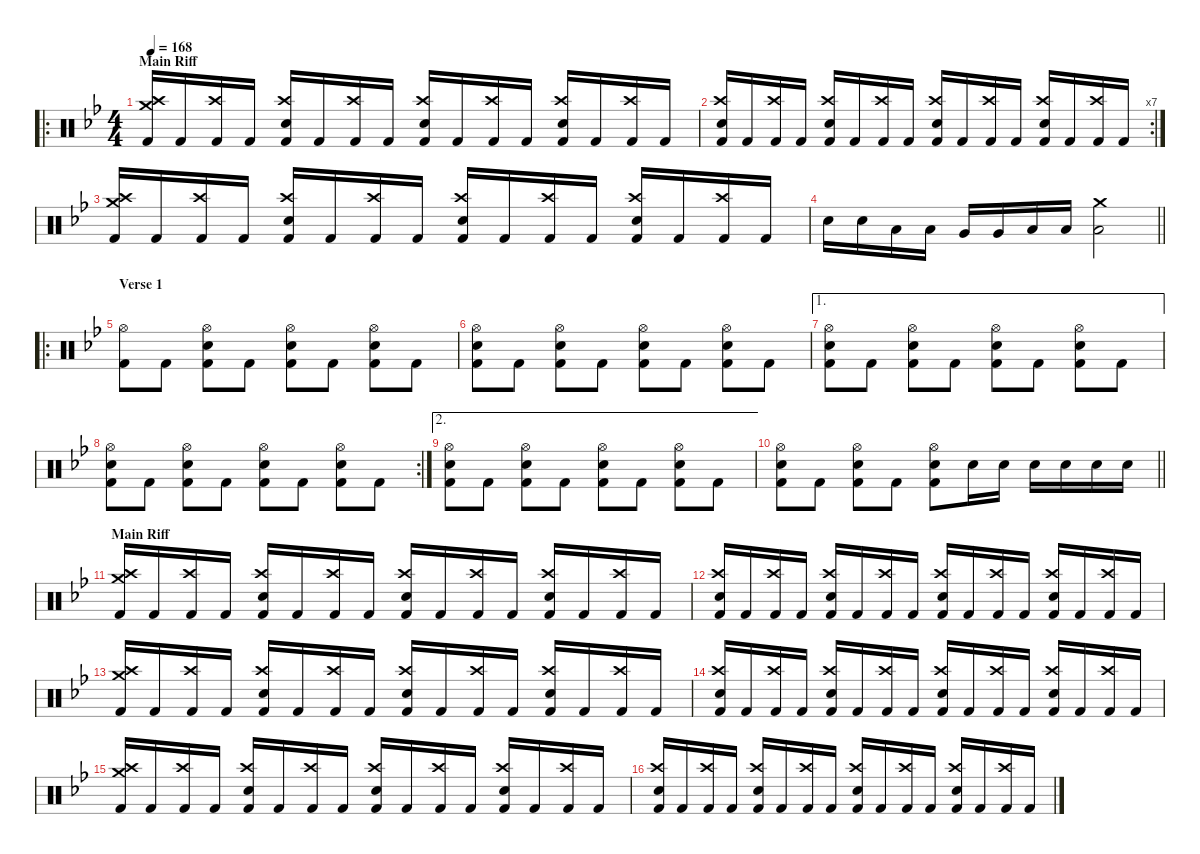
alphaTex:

\defaultSystemsLayout 4
\hideDynamics
\bracketExtendMode nobrackets
\singleTrackTrackNamePolicy hidden
\multiTrackTrackNamePolicy hidden
\firstSystemTrackNameMode fullname
\firstSystemTrackNameOrientation horizontal
\otherSystemsTrackNameOrientation horizontal
\track ("Percussion" "drm.") {instrument percussion}
\staff {score}
\articulation defaults
\ro
\ts (4 4)
\section ("" "Main Riff")
\tempo 168
\clef neutral
\ks bb
("Crash high (hit)"{acc forcenatural} "Crash medium (hit)"{acc forcenatural} "Kick (hit) 2"{acc forcenatural}).16{dy f beam Up} "Kick (hit) 2"{acc forcenatural}.16{beam Up} ("Crash high (hit)"{acc forcenatural} "Kick (hit) 2"{acc forcenatural}).16{beam Up} "Kick (hit) 2"{acc forcenatural}.16{beam Up} ("Crash high (hit)"{acc forcenatural} "Snare (hit) 2"{acc forcenatural} "Kick (hit) 2"{acc forcenatural}).16{beam Up} "Kick (hit) 2"{acc forcenatural}.16{beam Up} ("Crash high (hit)"{acc forcenatural} "Kick (hit) 2"{acc forcenatural}).16{beam Up} "Kick (hit) 2"{acc forcenatural}.16{beam Up} ("Crash high (hit)"{acc forcenatural} "Snare (hit) 2"{acc forcenatural} "Kick (hit) 2"{acc forcenatural}).16{beam Up} "Kick (hit) 2"{acc forcenatural}.16{beam Up} ("Crash high (hit)"{acc forcenatural} "Kick (hit) 2"{acc forcenatural}).16{beam Up} "Kick (hit) 2"{acc forcenatural}.16{beam Up} ("Crash high (hit)"{acc forcenatural} "Snare (hit) 2"{acc forcenatural} "Kick (hit) 2"{acc forcenatural}).16{beam Up} "Kick (hit) 2"{acc forcenatural}.16{beam Up} ("Crash high (hit)"{acc forcenatural} "Kick (hit) 2"{acc forcenatural}).16{beam Up} "Kick (hit) 2"{acc forcenatural}.16{beam Up} |
\rc 7
("Crash high (hit)"{acc forcenatural} "Snare (hit) 2"{acc forcenatural} "Kick (hit) 2"{acc forcenatural}).16{beam Up} "Kick (hit) 2"{acc forcenatural}.16{beam Up} ("Crash high (hit)"{acc forcenatural} "Kick (hit) 2"{acc forcenatural}).16{beam Up} "Kick (hit) 2"{acc forcenatural}.16{beam Up} ("Crash high (hit)"{acc forcenatural} "Snare (hit) 2"{acc forcenatural} "Kick (hit) 2"{acc forcenatural}).16{beam Up} "Kick (hit) 2"{acc forcenatural}.16{beam Up} ("Crash high (hit)"{acc forcenatural} "Kick (hit) 2"{acc forcenatural}).16{beam Up} "Kick (hit) 2"{acc forcenatural}.16{beam Up} ("Crash high (hit)"{acc forcenatural} "Snare (hit) 2"{acc forcenatural} "Kick (hit) 2"{acc forcenatural}).16{beam Up} "Kick (hit) 2"{acc forcenatural}.16{beam Up} ("Crash high (hit)"{acc forcenatural} "Kick (hit) 2"{acc forcenatural}).16{beam Up} "Kick (hit) 2"{acc forcenatural}.16{beam Up} ("Crash high (hit)"{acc forcenatural} "Snare (hit) 2"{acc forcenatural} "Kick (hit) 2"{acc forcenatural}).16{beam Up} "Kick (hit) 2"{acc forcenatural}.16{beam Up} ("Crash high (hit)"{acc forcenatural} "Kick (hit) 2"{acc forcenatural}).16{beam Up} "Kick (hit) 2"{acc forcenatural}.16{beam Up} |
("Crash high (hit)"{acc forcenatural} "Crash medium (hit)"{acc forcenatural} "Kick (hit) 2"{acc forcenatural}).16{beam Up} "Kick (hit) 2"{acc forcenatural}.16{beam Up} ("Crash high (hit)"{acc forcenatural} "Kick (hit) 2"{acc forcenatural}).16{beam Up} "Kick (hit) 2"{acc forcenatural}.16{beam Up} ("Crash high (hit)"{acc forcenatural} "Snare (hit) 2"{acc forcenatural} "Kick (hit) 2"{acc forcenatural}).16{beam Up} "Kick (hit) 2"{acc forcenatural}.16{beam Up} ("Crash high (hit)"{acc forcenatural} "Kick (hit) 2"{acc forcenatural}).16{beam Up} "Kick (hit) 2"{acc forcenatural}.16{beam Up} ("Crash high (hit)"{acc forcenatural} "Snare (hit) 2"{acc forcenatural} "Kick (hit) 2"{acc forcenatural}).16{beam Up} "Kick (hit) 2"{acc forcenatural}.16{beam Up} ("Crash high (hit)"{acc forcenatural} "Kick (hit) 2"{acc forcenatural}).16{beam Up} "Kick (hit) 2"{acc forcenatural}.16{beam Up} ("Crash high (hit)"{acc forcenatural} "Snare (hit) 2"{acc forcenatural} "Kick (hit) 2"{acc forcenatural}).16{beam Up} "Kick (hit) 2"{acc forcenatural}.16{beam Up} ("Crash high (hit)"{acc forcenatural} "Kick (hit) 2"{acc forcenatural}).16{beam Up} "Kick (hit) 2"{acc forcenatural}.16{beam Up} |
\barLineRight lightlight "Snare (hit) 2"{acc forcenatural}.16{beam Down} "Snare (hit) 2"{acc forcenatural}.16{beam Down} "Low Tom (hit)"{acc forcenatural}.16{beam Down} "Low Tom (hit)"{acc forcenatural}.16{beam Down} "Very Low Tom (hit)"{acc forcenatural}.16{beam Up} "Very Low Tom (hit)"{acc forcenatural}.16{beam Up} "Low Floor Tom (hit)"{acc forcenatural}.16{beam Up} "Low Floor Tom (hit)"{acc forcenatural}.16{beam Up}
("Crash medium (hit)"{acc forcenatural} "Low Tom (hit)"{acc forcenatural}).2{beam Down} |
\ro
\section ("" "Verse 1")
("Hi-Hat (open)"{acc forcenatural} "Kick (hit) 2"{acc forcenatural}).8{beam Down} "Kick (hit) 2"{acc forcenatural}.8{beam Down} ("Hi-Hat (open)"{acc forcenatural} "Snare (hit) 2"{acc forcenatural} "Kick (hit) 2"{acc forcenatural}).8{beam Down} "Kick (hit) 2"{acc forcenatural}.8{beam Down} ("Hi-Hat (open)"{acc forcenatural} "Snare (hit) 2"{acc forcenatural} "Kick (hit) 2"{acc forcenatural}).8{beam Down} "Kick (hit) 2"{acc forcenatural}.8{beam Down} ("Hi-Hat (open)"{acc forcenatural} "Snare (hit) 2"{acc forcenatural} "Kick (hit) 2"{acc forcenatural}).8{beam Down} "Kick (hit) 2"{acc forcenatural}.8{beam Down} |
("Hi-Hat (open)"{acc forcenatural} "Snare (hit) 2"{acc forcenatural} "Kick (hit) 2"{acc forcenatural}).8{beam Down} "Kick (hit) 2"{acc forcenatural}.8{beam Down} ("Hi-Hat (open)"{acc forcenatural} "Snare (hit) 2"{acc forcenatural} "Kick (hit) 2"{acc forcenatural}).8{beam Down} "Kick (hit) 2"{acc forcenatural}.8{beam Down} ("Hi-Hat (open)"{acc forcenatural} "Snare (hit) 2"{acc forcenatural} "Kick (hit) 2"{acc forcenatural}).8{beam Down} "Kick (hit) 2"{acc forcenatural}.8{beam Down} ("Hi-Hat (open)"{acc forcenatural} "Snare (hit) 2"{acc forcenatural} "Kick (hit) 2"{acc forcenatural}).8{beam Down} "Kick (hit) 2"{acc forcenatural}.8{beam Down} |
\ae 1
("Hi-Hat (open)"{acc forcenatural} "Snare (hit) 2"{acc forcenatural} "Kick (hit) 2"{acc forcenatural}).8{beam Down} "Kick (hit) 2"{acc forcenatural}.8{beam Down} ("Hi-Hat (open)"{acc forcenatural} "Snare (hit) 2"{acc forcenatural} "Kick (hit) 2"{acc forcenatural}).8{beam Down} "Kick (hit) 2"{acc forcenatural}.8{beam Down} ("Hi-Hat (open)"{acc forcenatural} "Snare (hit) 2"{acc forcenatural} "Kick (hit) 2"{acc forcenatural}).8{beam Down} "Kick (hit) 2"{acc forcenatural}.8{beam Down} ("Hi-Hat (open)"{acc forcenatural} "Snare (hit) 2"{acc forcenatural} "Kick (hit) 2"{acc forcenatural}).8{beam Down} "Kick (hit) 2"{acc forcenatural}.8{beam Down} |
\rc 2
("Hi-Hat (open)"{acc forcenatural} "Snare (hit) 2"{acc forcenatural} "Kick (hit) 2"{acc forcenatural}).8{beam Down} "Kick (hit) 2"{acc forcenatural}.8{beam Down} ("Hi-Hat (open)"{acc forcenatural} "Snare (hit) 2"{acc forcenatural} "Kick (hit) 2"{acc forcenatural}).8{beam Down} "Kick (hit) 2"{acc forcenatural}.8{beam Down} ("Hi-Hat (open)"{acc forcenatural} "Snare (hit) 2"{acc forcenatural} "Kick (hit) 2"{acc forcenatural}).8{beam Down} "Kick (hit) 2"{acc forcenatural}.8{beam Down} ("Hi-Hat (open)"{acc forcenatural} "Snare (hit) 2"{acc forcenatural} "Kick (hit) 2"{acc forcenatural}).8{beam Down} "Kick (hit) 2"{acc forcenatural}.8{beam Down} |
\ae 2
("Hi-Hat (open)"{acc forcenatural} "Snare (hit) 2"{acc forcenatural} "Kick (hit) 2"{acc forcenatural}).8{beam Down} "Kick (hit) 2"{acc forcenatural}.8{beam Down} ("Hi-Hat (open)"{acc forcenatural} "Snare (hit) 2"{acc forcenatural} "Kick (hit) 2"{acc forcenatural}).8{beam Down} "Kick (hit) 2"{acc forcenatural}.8{beam Down} ("Hi-Hat (open)"{acc forcenatural} "Snare (hit) 2"{acc forcenatural} "Kick (hit) 2"{acc forcenatural}).8{beam Down} "Kick (hit) 2"{acc forcenatural}.8{beam Down} ("Hi-Hat (open)"{acc forcenatural} "Snare (hit) 2"{acc forcenatural} "Kick (hit) 2"{acc forcenatural}).8{beam Down} "Kick (hit) 2"{acc forcenatural}.8{beam Down} |
\barLineRight lightlight
("Hi-Hat (open)"{acc forcenatural} "Snare (hit) 2"{acc forcenatural} "Kick (hit) 2"{acc forcenatural}).8{beam Down} "Kick (hit) 2"{acc forcenatural}.8{beam Down} ("Hi-Hat (open)"{acc forcenatural} "Snare (hit) 2"{acc forcenatural} "Kick (hit) 2"{acc forcenatural}).8{beam Down} "Kick (hit) 2"{acc forcenatural}.8{beam Down} ("Hi-Hat (open)"{acc forcenatural} "Snare (hit) 2"{acc forcenatural} "Kick (hit) 2"{acc forcenatural}).8{beam Down} "Snare (hit) 2"{acc forcenatural}.16{beam Down} "Snare (hit) 2"{acc forcenatural}.16{beam Down} "Snare (hit) 2"{acc forcenatural}.16{beam Down} "Snare (hit) 2"{acc forcenatural}.16{beam Down} "Snare (hit) 2"{acc forcenatural}.16{beam Down} "Snare (hit) 2"{acc forcenatural}.16{beam Down} |
\section ("" "Main Riff")
("Crash high (hit)"{acc forcenatural} "Crash medium (hit)"{acc forcenatural} "Kick (hit) 2"{acc forcenatural}).16{beam Up} "Kick (hit) 2"{acc forcenatural}.16{beam Up} ("Crash high (hit)"{acc forcenatural} "Kick (hit) 2"{acc forcenatural}).16{beam Up} "Kick (hit) 2"{acc forcenatural}.16{beam Up} ("Crash high (hit)"{acc forcenatural} "Snare (hit) 2"{acc forcenatural} "Kick (hit) 2"{acc forcenatural}).16{beam Up} "Kick (hit) 2"{acc forcenatural}.16{beam Up} ("Crash high (hit)"{acc forcenatural} "Kick (hit) 2"{acc forcenatural}).16{beam Up} "Kick (hit) 2"{acc forcenatural}.16{beam Up} ("Crash high (hit)"{acc forcenatural} "Snare (hit) 2"{acc forcenatural} "Kick (hit) 2"{acc forcenatural}).16{beam Up} "Kick (hit) 2"{acc forcenatural}.16{beam Up} ("Crash high (hit)"{acc forcenatural} "Kick (hit) 2"{acc forcenatural}).16{beam Up} "Kick (hit) 2"{acc forcenatural}.16{beam Up} ("Crash high (hit)"{acc forcenatural} "Snare (hit) 2"{acc forcenatural} "Kick (hit) 2"{acc forcenatural}).16{beam Up} "Kick (hit) 2"{acc forcenatural}.16{beam Up} ("Crash high (hit)"{acc forcenatural} "Kick (hit) 2"{acc forcenatural}).16{beam Up} "Kick (hit) 2"{acc forcenatural}.16{beam Up} |
("Crash high (hit)"{acc forcenatural} "Snare (hit) 2"{acc forcenatural} "Kick (hit) 2"{acc forcenatural}).16{beam Up} "Kick (hit) 2"{acc forcenatural}.16{beam Up} ("Crash high (hit)"{acc forcenatural} "Kick (hit) 2"{acc forcenatural}).16{beam Up} "Kick (hit) 2"{acc forcenatural}.16{beam Up} ("Crash high (hit)"{acc forcenatural} "Snare (hit) 2"{acc forcenatural} "Kick (hit) 2"{acc forcenatural}).16{beam Up} "Kick (hit) 2"{acc forcenatural}.16{beam Up} ("Crash high (hit)"{acc forcenatural} "Kick (hit) 2"{acc forcenatural}).16{beam Up} "Kick (hit) 2"{acc forcenatural}.16{beam Up} ("Crash high (hit)"{acc forcenatural} "Snare (hit) 2"{acc forcenatural} "Kick (hit) 2"{acc forcenatural}).16{beam Up} "Kick (hit) 2"{acc forcenatural}.16{beam Up} ("Crash high (hit)"{acc forcenatural} "Kick (hit) 2"{acc forcenatural}).16{beam Up} "Kick (hit) 2"{acc forcenatural}.16{beam Up} ("Crash high (hit)"{acc forcenatural} "Snare (hit) 2"{acc forcenatural} "Kick (hit) 2"{acc forcenatural}).16{beam Up} "Kick (hit) 2"{acc forcenatural}.16{beam Up} ("Crash high (hit)"{acc forcenatural} "Kick (hit) 2"{acc forcenatural}).16{beam Up} "Kick (hit) 2"{acc forcenatural}.16{beam Up} |
("Crash high (hit)"{acc forcenatural} "Crash medium (hit)"{acc forcenatural} "Kick (hit) 2"{acc forcenatural}).16{beam Up} "Kick (hit) 2"{acc forcenatural}.16{beam Up} ("Crash high (hit)"{acc forcenatural} "Kick (hit) 2"{acc forcenatural}).16{beam Up} "Kick (hit) 2"{acc forcenatural}.16{beam Up} ("Crash high (hit)"{acc forcenatural} "Snare (hit) 2"{acc forcenatural} "Kick (hit) 2"{acc forcenatural}).16{beam Up} "Kick (hit) 2"{acc forcenatural}.16{beam Up} ("Crash high (hit)"{acc forcenatural} "Kick (hit) 2"{acc forcenatural}).16{beam Up} "Kick (hit) 2"{acc forcenatural}.16{beam Up} ("Crash high (hit)"{acc forcenatural} "Snare (hit) 2"{acc forcenatural} "Kick (hit) 2"{acc forcenatural}).16{beam Up} "Kick (hit) 2"{acc forcenatural}.16{beam Up} ("Crash high (hit)"{acc forcenatural} "Kick (hit) 2"{acc forcenatural}).16{beam Up} "Kick (hit) 2"{acc forcenatural}.16{beam Up} ("Crash high (hit)"{acc forcenatural} "Snare (hit) 2"{acc forcenatural} "Kick (hit) 2"{acc forcenatural}).16{beam Up} "Kick (hit) 2"{acc forcenatural}.16{beam Up} ("Crash high (hit)"{acc forcenatural} "Kick (hit) 2"{acc forcenatural}).16{beam Up} "Kick (hit) 2"{acc forcenatural}.16{beam Up} |
("Crash high (hit)"{acc forcenatural} "Snare (hit) 2"{acc forcenatural} "Kick (hit) 2"{acc forcenatural}).16{beam Up} "Kick (hit) 2"{acc forcenatural}.16{beam Up} ("Crash high (hit)"{acc forcenatural} "Kick (hit) 2"{acc forcenatural}).16{beam Up} "Kick (hit) 2"{acc forcenatural}.16{beam Up} ("Crash high (hit)"{acc forcenatural} "Snare (hit) 2"{acc forcenatural} "Kick (hit) 2"{acc forcenatural}).16{beam Up} "Kick (hit) 2"{acc forcenatural}.16{beam Up} ("Crash high (hit)"{acc forcenatural} "Kick (hit) 2"{acc forcenatural}).16{beam Up} "Kick (hit) 2"{acc forcenatural}.16{beam Up} ("Crash high (hit)"{acc forcenatural} "Snare (hit) 2"{acc forcenatural} "Kick (hit) 2"{acc forcenatural}).16{beam Up} "Kick (hit) 2"{acc forcenatural}.16{beam Up} ("Crash high (hit)"{acc forcenatural} "Kick (hit) 2"{acc forcenatural}).16{beam Up} "Kick (hit) 2"{acc forcenatural}.16{beam Up} ("Crash high (hit)"{acc forcenatural} "Snare (hit) 2"{acc forcenatural} "Kick (hit) 2"{acc forcenatural}).16{beam Up} "Kick (hit) 2"{acc forcenatural}.16{beam Up} ("Crash high (hit)"{acc forcenatural} "Kick (hit) 2"{acc forcenatural}).16{beam Up} "Kick (hit) 2"{acc forcenatural}.16{beam Up} |
("Crash high (hit)"{acc forcenatural} "Crash medium (hit)"{acc forcenatural} "Kick (hit) 2"{acc forcenatural}).16{beam Up} "Kick (hit) 2"{acc forcenatural}.16{beam Up} ("Crash high (hit)"{acc forcenatural} "Kick (hit) 2"{acc forcenatural}).16{beam Up} "Kick (hit) 2"{acc forcenatural}.16{beam Up} ("Crash high (hit)"{acc forcenatural} "Snare (hit) 2"{acc forcenatural} "Kick (hit) 2"{acc forcenatural}).16{beam Up} "Kick (hit) 2"{acc forcenatural}.16{beam Up} ("Crash high (hit)"{acc forcenatural} "Kick (hit) 2"{acc forcenatural}).16{beam Up} "Kick (hit) 2"{acc forcenatural}.16{beam Up} ("Crash high (hit)"{acc forcenatural} "Snare (hit) 2"{acc forcenatural} "Kick (hit) 2"{acc forcenatural}).16{beam Up} "Kick (hit) 2"{acc forcenatural}.16{beam Up} ("Crash high (hit)"{acc forcenatural} "Kick (hit) 2"{acc forcenatural}).16{beam Up} "Kick (hit) 2"{acc forcenatural}.16{beam Up} ("Crash high (hit)"{acc forcenatural} "Snare (hit) 2"{acc forcenatural} "Kick (hit) 2"{acc forcenatural}).16{beam Up} "Kick (hit) 2"{acc forcenatural}.16{beam Up} ("Crash high (hit)"{acc forcenatural} "Kick (hit) 2"{acc forcenatural}).16{beam Up} "Kick (hit) 2"{acc forcenatural}.16{beam Up} |
("Crash high (hit)"{acc forcenatural} "Snare (hit) 2"{acc forcenatural} "Kick (hit) 2"{acc forcenatural}).16{beam Up} "Kick (hit) 2"{acc forcenatural}.16{beam Up} ("Crash high (hit)"{acc forcenatural} "Kick (hit) 2"{acc forcenatural}).16{beam Up} "Kick (hit) 2"{acc forcenatural}.16{beam Up} ("Crash high (hit)"{acc forcenatural} "Snare (hit) 2"{acc forcenatural} "Kick (hit) 2"{acc forcenatural}).16{beam Up} "Kick (hit) 2"{acc forcenatural}.16{beam Up} ("Crash high (hit)"{acc forcenatural} "Kick (hit) 2"{acc forcenatural}).16{beam Up} "Kick (hit) 2"{acc forcenatural}.16{beam Up} ("Crash high (hit)"{acc forcenatural} "Snare (hit) 2"{acc forcenatural} "Kick (hit) 2"{acc forcenatural}).16{beam Up} "Kick (hit) 2"{acc forcenatural}.16{beam Up} ("Crash high (hit)"{acc forcenatural} "Kick (hit) 2"{acc forcenatural}).16{beam Up} "Kick (hit) 2"{acc forcenatural}.16{beam Up} ("Crash high (hit)"{acc forcenatural} "Snare (hit) 2"{acc forcenatural} "Kick (hit) 2"{acc forcenatural}).16{beam Up} "Kick (hit) 2"{acc forcenatural}.16{beam Up} ("Crash high (hit)"{acc forcenatural} "Kick (hit) 2"{acc forcenatural}).16{beam Up} "Kick (hit) 2"{acc forcenatural}.16{beam Up}
